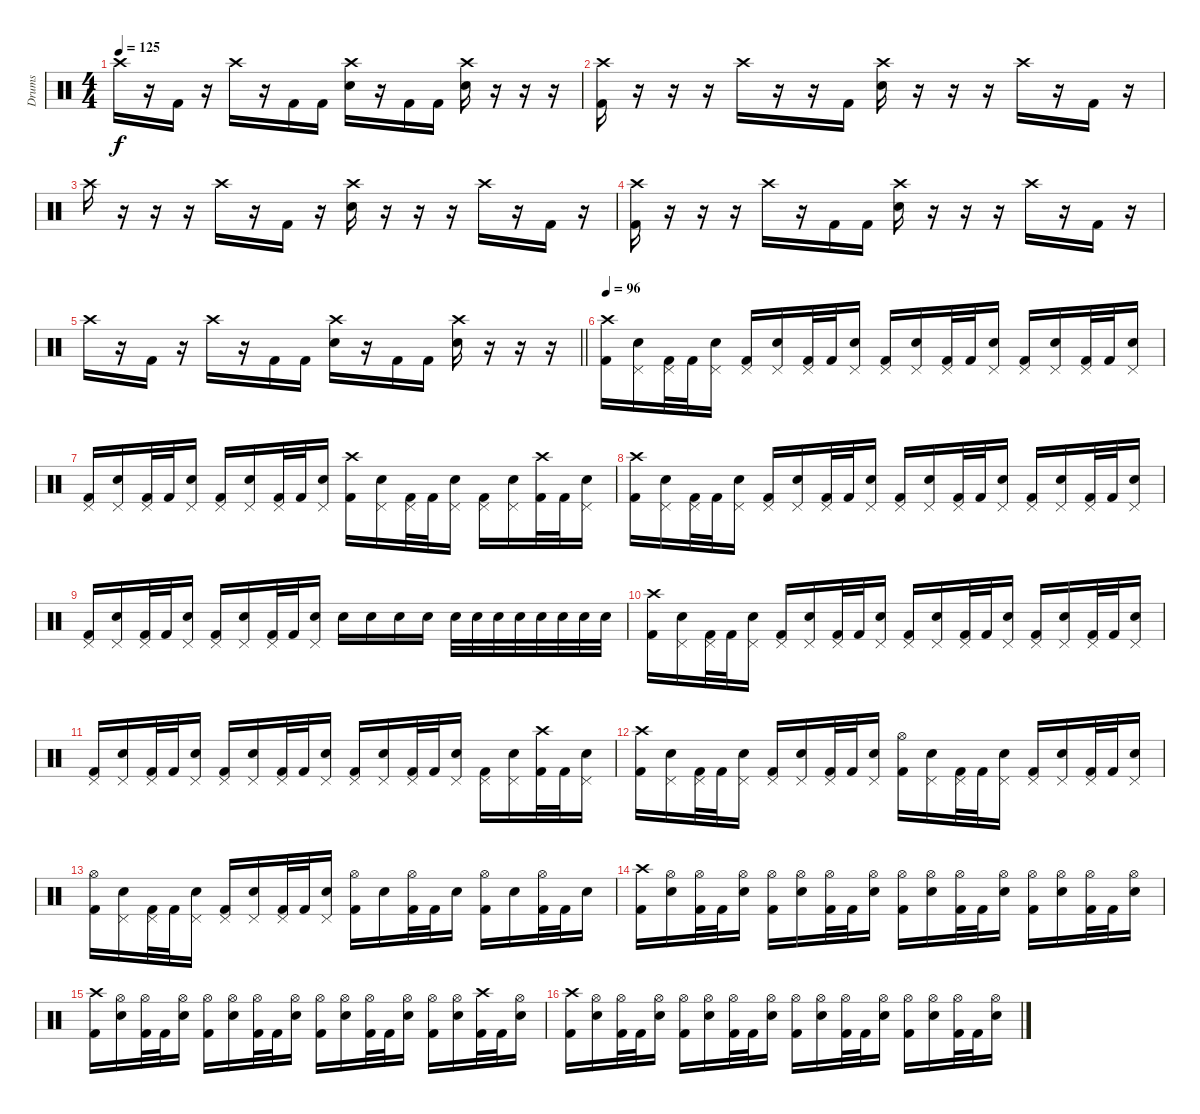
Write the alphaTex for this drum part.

\track ("Drums" "Drums") {instrument percussion}
\staff
\articulation defaults
\ts (4 4)
\tempo 125
\clef neutral
\ks c "Crash high (hit)".16{dy f}
r.16 "Kick (hit) 2".16 r.16 "Crash high (hit)".16 r.16 "Kick (hit) 2".16 "Kick (hit) 2".16 ("Crash high (hit)" "Electric Snare (hit)").16 r.16 "Kick (hit) 2".16 "Kick (hit) 2".16 ("Crash high (hit)" "Electric Snare (hit)").16 r.16 r.16 r.16 |
("Crash high (hit)" "Kick (hit) 2").16 r.16 r.16 r.16 "Crash high (hit)".16 r.16 r.16 "Kick (hit) 2".16 ("Crash high (hit)" "Electric Snare (hit)").16 r.16 r.16 r.16 "Crash high (hit)".16 r.16 "Kick (hit) 2".16 r.16 |
"Crash high (hit)".16 r.16 r.16 r.16 "Crash high (hit)".16 r.16 "Kick (hit) 2".16 r.16 ("Crash high (hit)" "Electric Snare (hit)").16 r.16 r.16 r.16 "Crash high (hit)".16 r.16 "Kick (hit) 2".16 r.16 |
("Crash high (hit)" "Kick (hit) 2").16 r.16 r.16 r.16 "Crash high (hit)".16 r.16 "Kick (hit) 2".16 "Kick (hit) 2".16 ("Crash high (hit)" "Electric Snare (hit)").16 r.16 r.16 r.16 "Crash high (hit)".16 r.16 "Kick (hit) 2".16 r.16 |
\barLineRight lightlight "Crash high (hit)".16
r.16 "Kick (hit) 2".16 r.16 "Crash high (hit)".16 r.16 "Kick (hit) 2".16 "Kick (hit) 2".16 ("Crash high (hit)" "Electric Snare (hit)").16 r.16 "Kick (hit) 2".16 "Kick (hit) 2".16 ("Crash high (hit)" "Electric Snare (hit)").16 r.16 r.16 r.16 |
\section ("" "")
\tempo 96
("Crash high (hit)" "Kick (hit) 2").16 ("Pedal Hi-Hat (hit)" "Electric Snare (hit)").16 ("Pedal Hi-Hat (hit)" "Kick (hit) 2").32 "Kick (hit) 2".32 ("Pedal Hi-Hat (hit)" "Electric Snare (hit)").16 ("Pedal Hi-Hat (hit)" "Kick (hit) 2").16 ("Pedal Hi-Hat (hit)" "Electric Snare (hit)").16 ("Pedal Hi-Hat (hit)" "Kick (hit) 2").32 "Kick (hit) 2".32 ("Pedal Hi-Hat (hit)" "Electric Snare (hit)").16 ("Pedal Hi-Hat (hit)" "Kick (hit) 2").16 ("Pedal Hi-Hat (hit)" "Electric Snare (hit)").16 ("Pedal Hi-Hat (hit)" "Kick (hit) 2").32 "Kick (hit) 2".32 ("Pedal Hi-Hat (hit)" "Electric Snare (hit)").16 ("Pedal Hi-Hat (hit)" "Kick (hit) 2").16 ("Pedal Hi-Hat (hit)" "Electric Snare (hit)").16 ("Pedal Hi-Hat (hit)" "Kick (hit) 2").32 "Kick (hit) 2".32 ("Pedal Hi-Hat (hit)" "Electric Snare (hit)").16 |
("Pedal Hi-Hat (hit)" "Kick (hit) 2").16 ("Pedal Hi-Hat (hit)" "Electric Snare (hit)").16 ("Pedal Hi-Hat (hit)" "Kick (hit) 2").32 "Kick (hit) 2".32 ("Pedal Hi-Hat (hit)" "Electric Snare (hit)").16 ("Pedal Hi-Hat (hit)" "Kick (hit) 2").16 ("Pedal Hi-Hat (hit)" "Electric Snare (hit)").16 ("Pedal Hi-Hat (hit)" "Kick (hit) 2").32 "Kick (hit) 2".32 ("Pedal Hi-Hat (hit)" "Electric Snare (hit)").16 ("Crash high (hit)" "Kick (hit) 2").16 ("Pedal Hi-Hat (hit)" "Electric Snare (hit)").16 ("Pedal Hi-Hat (hit)" "Kick (hit) 2").32 "Kick (hit) 2".32 ("Pedal Hi-Hat (hit)" "Electric Snare (hit)").16 ("Pedal Hi-Hat (hit)" "Kick (hit) 2").16 ("Pedal Hi-Hat (hit)" "Electric Snare (hit)").16 ("Crash high (hit)" "Kick (hit) 2").32 "Kick (hit) 2".32 ("Pedal Hi-Hat (hit)" "Electric Snare (hit)").16 |
("Crash high (hit)" "Kick (hit) 2").16 ("Pedal Hi-Hat (hit)" "Electric Snare (hit)").16 ("Pedal Hi-Hat (hit)" "Kick (hit) 2").32 "Kick (hit) 2".32 ("Pedal Hi-Hat (hit)" "Electric Snare (hit)").16 ("Pedal Hi-Hat (hit)" "Kick (hit) 2").16 ("Pedal Hi-Hat (hit)" "Electric Snare (hit)").16 ("Pedal Hi-Hat (hit)" "Kick (hit) 2").32 "Kick (hit) 2".32 ("Pedal Hi-Hat (hit)" "Electric Snare (hit)").16 ("Pedal Hi-Hat (hit)" "Kick (hit) 2").16 ("Pedal Hi-Hat (hit)" "Electric Snare (hit)").16 ("Pedal Hi-Hat (hit)" "Kick (hit) 2").32 "Kick (hit) 2".32 ("Pedal Hi-Hat (hit)" "Electric Snare (hit)").16 ("Pedal Hi-Hat (hit)" "Kick (hit) 2").16 ("Pedal Hi-Hat (hit)" "Electric Snare (hit)").16 ("Pedal Hi-Hat (hit)" "Kick (hit) 2").32 "Kick (hit) 2".32 ("Pedal Hi-Hat (hit)" "Electric Snare (hit)").16 |
("Pedal Hi-Hat (hit)" "Kick (hit) 2").16 ("Pedal Hi-Hat (hit)" "Electric Snare (hit)").16 ("Pedal Hi-Hat (hit)" "Kick (hit) 2").32 "Kick (hit) 2".32 ("Pedal Hi-Hat (hit)" "Electric Snare (hit)").16 ("Pedal Hi-Hat (hit)" "Kick (hit) 2").16 ("Pedal Hi-Hat (hit)" "Electric Snare (hit)").16 ("Pedal Hi-Hat (hit)" "Kick (hit) 2").32 "Kick (hit) 2".32 ("Pedal Hi-Hat (hit)" "Electric Snare (hit)").16 "Electric Snare (hit)".16 "Electric Snare (hit)".16 "Electric Snare (hit)".16 "Electric Snare (hit)".16 "Electric Snare (hit)".32 "Electric Snare (hit)".32 "Electric Snare (hit)".32 "Electric Snare (hit)".32 "Electric Snare (hit)".32 "Electric Snare (hit)".32 "Electric Snare (hit)".32 "Electric Snare (hit)".32 |
("Crash high (hit)" "Kick (hit) 2").16 ("Pedal Hi-Hat (hit)" "Electric Snare (hit)").16 ("Pedal Hi-Hat (hit)" "Kick (hit) 2").32 "Kick (hit) 2".32 ("Pedal Hi-Hat (hit)" "Electric Snare (hit)").16 ("Pedal Hi-Hat (hit)" "Kick (hit) 2").16 ("Pedal Hi-Hat (hit)" "Electric Snare (hit)").16 ("Pedal Hi-Hat (hit)" "Kick (hit) 2").32 "Kick (hit) 2".32 ("Pedal Hi-Hat (hit)" "Electric Snare (hit)").16 ("Pedal Hi-Hat (hit)" "Kick (hit) 2").16 ("Pedal Hi-Hat (hit)" "Electric Snare (hit)").16 ("Pedal Hi-Hat (hit)" "Kick (hit) 2").32 "Kick (hit) 2".32 ("Pedal Hi-Hat (hit)" "Electric Snare (hit)").16 ("Pedal Hi-Hat (hit)" "Kick (hit) 2").16 ("Pedal Hi-Hat (hit)" "Electric Snare (hit)").16 ("Pedal Hi-Hat (hit)" "Kick (hit) 2").32 "Kick (hit) 2".32 ("Pedal Hi-Hat (hit)" "Electric Snare (hit)").16 |
("Pedal Hi-Hat (hit)" "Kick (hit) 2").16 ("Pedal Hi-Hat (hit)" "Electric Snare (hit)").16 ("Pedal Hi-Hat (hit)" "Kick (hit) 2").32 "Kick (hit) 2".32 ("Pedal Hi-Hat (hit)" "Electric Snare (hit)").16 ("Pedal Hi-Hat (hit)" "Kick (hit) 2").16 ("Pedal Hi-Hat (hit)" "Electric Snare (hit)").16 ("Pedal Hi-Hat (hit)" "Kick (hit) 2").32 "Kick (hit) 2".32 ("Pedal Hi-Hat (hit)" "Electric Snare (hit)").16 ("Pedal Hi-Hat (hit)" "Kick (hit) 2").16 ("Pedal Hi-Hat (hit)" "Electric Snare (hit)").16 ("Pedal Hi-Hat (hit)" "Kick (hit) 2").32 "Kick (hit) 2".32 ("Pedal Hi-Hat (hit)" "Electric Snare (hit)").16 ("Pedal Hi-Hat (hit)" "Kick (hit) 2").16 ("Pedal Hi-Hat (hit)" "Electric Snare (hit)").16 ("Crash high (hit)" "Kick (hit) 2").32 "Kick (hit) 2".32 ("Pedal Hi-Hat (hit)" "Electric Snare (hit)").16 |
("Crash high (hit)" "Kick (hit) 2").16 ("Pedal Hi-Hat (hit)" "Electric Snare (hit)").16 ("Pedal Hi-Hat (hit)" "Kick (hit) 2").32 "Kick (hit) 2".32 ("Pedal Hi-Hat (hit)" "Electric Snare (hit)").16 ("Pedal Hi-Hat (hit)" "Kick (hit) 2").16 ("Pedal Hi-Hat (hit)" "Electric Snare (hit)").16 ("Pedal Hi-Hat (hit)" "Kick (hit) 2").32 "Kick (hit) 2".32 ("Pedal Hi-Hat (hit)" "Electric Snare (hit)").16 ("Hi-Hat (open)" "Kick (hit) 2").16 ("Pedal Hi-Hat (hit)" "Electric Snare (hit)").16 ("Pedal Hi-Hat (hit)" "Kick (hit) 2").32 "Kick (hit) 2".32 ("Pedal Hi-Hat (hit)" "Electric Snare (hit)").16 ("Pedal Hi-Hat (hit)" "Kick (hit) 2").16 ("Pedal Hi-Hat (hit)" "Electric Snare (hit)").16 ("Pedal Hi-Hat (hit)" "Kick (hit) 2").32 "Kick (hit) 2".32 ("Pedal Hi-Hat (hit)" "Electric Snare (hit)").16 |
("Hi-Hat (open)" "Kick (hit) 2").16 ("Pedal Hi-Hat (hit)" "Electric Snare (hit)").16 ("Pedal Hi-Hat (hit)" "Kick (hit) 2").32 "Kick (hit) 2".32 ("Pedal Hi-Hat (hit)" "Electric Snare (hit)").16 ("Pedal Hi-Hat (hit)" "Kick (hit) 2").16 ("Pedal Hi-Hat (hit)" "Electric Snare (hit)").16 ("Pedal Hi-Hat (hit)" "Kick (hit) 2").32 "Kick (hit) 2".32 ("Pedal Hi-Hat (hit)" "Electric Snare (hit)").16 ("Hi-Hat (open)" "Kick (hit) 2").16 "Electric Snare (hit)".16 ("Hi-Hat (open)" "Kick (hit) 2").32 "Kick (hit) 2".32 "Electric Snare (hit)".16 ("Hi-Hat (open)" "Kick (hit) 2").16 "Electric Snare (hit)".16 ("Hi-Hat (open)" "Kick (hit) 2").32 "Kick (hit) 2".32 "Electric Snare (hit)".16 |
("Crash high (hit)" "Kick (hit) 2").16 ("Hi-Hat (open)" "Electric Snare (hit)").16 ("Hi-Hat (open)" "Kick (hit) 2").32 "Kick (hit) 2".32 ("Hi-Hat (open)" "Electric Snare (hit)").16 ("Hi-Hat (open)" "Kick (hit) 2").16 ("Hi-Hat (open)" "Electric Snare (hit)").16 ("Hi-Hat (open)" "Kick (hit) 2").32 "Kick (hit) 2".32 ("Hi-Hat (open)" "Electric Snare (hit)").16 ("Hi-Hat (open)" "Kick (hit) 2").16 ("Hi-Hat (open)" "Electric Snare (hit)").16 ("Hi-Hat (open)" "Kick (hit) 2").32 "Kick (hit) 2".32 ("Hi-Hat (open)" "Electric Snare (hit)").16 ("Hi-Hat (open)" "Kick (hit) 2").16 ("Hi-Hat (open)" "Electric Snare (hit)").16 ("Hi-Hat (open)" "Kick (hit) 2").32 "Kick (hit) 2".32 ("Hi-Hat (open)" "Electric Snare (hit)").16 |
("Crash high (hit)" "Kick (hit) 2").16 ("Hi-Hat (open)" "Electric Snare (hit)").16 ("Hi-Hat (open)" "Kick (hit) 2").32 "Kick (hit) 2".32 ("Hi-Hat (open)" "Electric Snare (hit)").16 ("Hi-Hat (open)" "Kick (hit) 2").16 ("Hi-Hat (open)" "Electric Snare (hit)").16 ("Hi-Hat (open)" "Kick (hit) 2").32 "Kick (hit) 2".32 ("Hi-Hat (open)" "Electric Snare (hit)").16 ("Hi-Hat (open)" "Kick (hit) 2").16 ("Hi-Hat (open)" "Electric Snare (hit)").16 ("Hi-Hat (open)" "Kick (hit) 2").32 "Kick (hit) 2".32 ("Hi-Hat (open)" "Electric Snare (hit)").16 ("Hi-Hat (open)" "Kick (hit) 2").16 ("Hi-Hat (open)" "Electric Snare (hit)").16 ("Crash high (hit)" "Kick (hit) 2").32 "Kick (hit) 2".32 ("Hi-Hat (open)" "Electric Snare (hit)").16 |
("Crash high (hit)" "Kick (hit) 2").16 ("Hi-Hat (open)" "Electric Snare (hit)").16 ("Hi-Hat (open)" "Kick (hit) 2").32 "Kick (hit) 2".32 ("Hi-Hat (open)" "Electric Snare (hit)").16 ("Hi-Hat (open)" "Kick (hit) 2").16 ("Hi-Hat (open)" "Electric Snare (hit)").16 ("Hi-Hat (open)" "Kick (hit) 2").32 "Kick (hit) 2".32 ("Hi-Hat (open)" "Electric Snare (hit)").16 ("Hi-Hat (open)" "Kick (hit) 2").16 ("Hi-Hat (open)" "Electric Snare (hit)").16 ("Hi-Hat (open)" "Kick (hit) 2").32 "Kick (hit) 2".32 ("Hi-Hat (open)" "Electric Snare (hit)").16 ("Hi-Hat (open)" "Kick (hit) 2").16 ("Hi-Hat (open)" "Electric Snare (hit)").16 ("Hi-Hat (open)" "Kick (hit) 2").32 "Kick (hit) 2".32 ("Hi-Hat (open)" "Electric Snare (hit)").16
